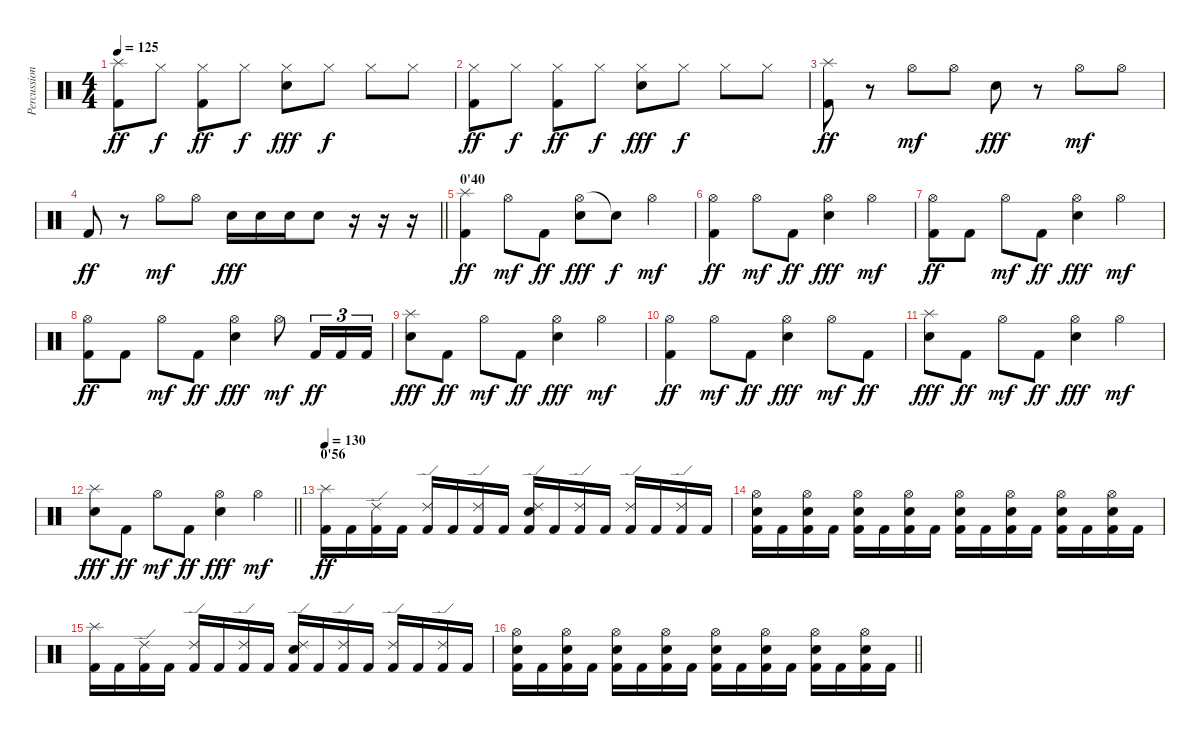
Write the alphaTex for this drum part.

\track ("Percussions" "Percussion") {instrument percussion}
\staff {score}
\articulation defaults
\ts (4 4)
\tempo 125
\clef neutral
\ks c
("Splash (hit)" "Kick (hit) 2").8{dy ff} "Hi-Hat (closed)".8{dy f} ("Hi-Hat (closed)" "Kick (hit) 2").8{dy ff} "Hi-Hat (closed)".8{dy f} ("Hi-Hat (closed)" "Snare (hit) 2").8{dy fff} "Hi-Hat (closed)".8{dy f} "Hi-Hat (closed)".8 "Hi-Hat (closed)".8 |
("Hi-Hat (closed)" "Kick (hit) 2").8{dy ff} "Hi-Hat (closed)".8{dy f} ("Hi-Hat (closed)" "Kick (hit) 2").8{dy ff} "Hi-Hat (closed)".8{dy f} ("Hi-Hat (closed)" "Snare (hit) 2").8{dy fff} "Hi-Hat (closed)".8{dy f} "Hi-Hat (closed)".8 "Hi-Hat (closed)".8 |
("Splash (hit)" "Kick (hit) 2").8{dy ff} r.8 "Hi-Hat (open)".8{dy mf} "Hi-Hat (open)".8 "Snare (hit) 2".8{dy fff} r.8 "Hi-Hat (open)".8{dy mf} "Hi-Hat (open)".8 |
\barLineRight lightlight "Kick (hit) 2".8{dy ff}
r.8 "Hi-Hat (open)".8{dy mf} "Hi-Hat (open)".8 "Snare (hit) 2".16{dy fff} "Snare (hit) 2".16 "Snare (hit) 2".16 "Snare (hit) 2".8 r.16 r.16 r.16 |
\section ("" "0'40")
("Splash (hit)" "Kick (hit) 2").4{dy ff} "Hi-Hat (open)".8{dy mf} "Kick (hit) 2".8{dy ff} ("Hi-Hat (open)" "Snare (hit) 2").8{dy fff} "Snare (hit)"{t}.8{dy f} "Hi-Hat (open)".4{dy mf} |
("Hi-Hat (open)" "Kick (hit) 2").4{dy ff} "Hi-Hat (open)".8{dy mf} "Kick (hit) 2".8{dy ff} ("Hi-Hat (open)" "Snare (hit) 2").4{dy fff} "Hi-Hat (open)".4{dy mf} |
("Hi-Hat (open)" "Kick (hit) 2").8{dy ff} "Kick (hit) 2".8 "Hi-Hat (open)".8{dy mf} "Kick (hit) 2".8{dy ff} ("Hi-Hat (open)" "Snare (hit) 2").4{dy fff} "Hi-Hat (open)".4{dy mf} |
("Hi-Hat (open)" "Kick (hit) 2").8{dy ff} "Kick (hit) 2".8 "Hi-Hat (open)".8{dy mf} "Kick (hit) 2".8{dy ff} ("Hi-Hat (open)" "Snare (hit) 2").4{dy fff} "Hi-Hat (open)".8{dy mf} "Kick (hit) 2".16{tu (3 2) dy ff} "Kick (hit) 2".16{tu (3 2)} "Kick (hit) 2".16{tu (3 2)} |
("Splash (hit)" "Snare (hit) 2").8{dy fff} "Kick (hit) 2".8{dy ff} "Hi-Hat (open)".8{dy mf} "Kick (hit) 2".8{dy ff} ("Hi-Hat (open)" "Snare (hit) 2").4{dy fff} "Hi-Hat (open)".4{dy mf} |
("Hi-Hat (open)" "Kick (hit) 2").4{dy ff} "Hi-Hat (open)".8{dy mf} "Kick (hit) 2".8{dy ff} ("Hi-Hat (open)" "Snare (hit) 2").4{dy fff} "Hi-Hat (open)".8{dy mf} "Kick (hit) 2".8{dy ff} |
("Splash (hit)" "Snare (hit) 2").8{dy fff} "Kick (hit) 2".8{dy ff} "Hi-Hat (open)".8{dy mf} "Kick (hit) 2".8{dy ff} ("Hi-Hat (open)" "Snare (hit) 2").4{dy fff} "Hi-Hat (open)".4{dy mf} |
\barLineRight lightlight
("Splash (hit)" "Snare (hit) 2").8{dy fff} "Kick (hit) 2".8{dy ff} "Hi-Hat (open)".8{dy mf} "Kick (hit) 2".8{dy ff} ("Hi-Hat (open)" "Snare (hit) 2").4{dy fff} "Hi-Hat (open)".4{dy mf} |
\section ("" "0'56")
\tempo 130
("Splash (hit)" "Kick (hit) 2").16{dy ff} "Kick (hit) 2".16 ("Ride (edge) 2" "Kick (hit) 2").16 "Kick (hit) 2".16 ("Ride (edge) 2" "Kick (hit) 2").16 "Kick (hit) 2".16 ("Ride (edge) 2" "Kick (hit) 2").16 "Kick (hit) 2".16 ("Ride (edge) 2" "Snare (hit) 2" "Kick (hit) 2").16 "Kick (hit) 2".16 ("Ride (edge) 2" "Kick (hit) 2").16 "Kick (hit) 2".16 ("Ride (edge) 2" "Kick (hit) 2").16 "Kick (hit) 2".16 ("Ride (edge) 2" "Kick (hit) 2").16 "Kick (hit) 2".16 |
("Hi-Hat (open)" "Snare (hit) 2" "Kick (hit) 2").16 "Kick (hit) 2".16 ("Hi-Hat (open)" "Snare (hit) 2" "Kick (hit) 2").16 "Kick (hit) 2".16 ("Hi-Hat (open)" "Snare (hit) 2" "Kick (hit) 2").16 "Kick (hit) 2".16 ("Hi-Hat (open)" "Snare (hit) 2" "Kick (hit) 2").16 "Kick (hit) 2".16 ("Hi-Hat (open)" "Snare (hit) 2" "Kick (hit) 2").16 "Kick (hit) 2".16 ("Hi-Hat (open)" "Snare (hit) 2" "Kick (hit) 2").16 "Kick (hit) 2".16 ("Hi-Hat (open)" "Snare (hit) 2" "Kick (hit) 2").16 "Kick (hit) 2".16 ("Hi-Hat (open)" "Snare (hit) 2" "Kick (hit) 2").16 "Kick (hit) 2".16 |
("Splash (hit)" "Kick (hit) 2").16 "Kick (hit) 2".16 ("Ride (edge) 2" "Kick (hit) 2").16 "Kick (hit) 2".16 ("Ride (edge) 2" "Kick (hit) 2").16 "Kick (hit) 2".16 ("Ride (edge) 2" "Kick (hit) 2").16 "Kick (hit) 2".16 ("Ride (edge) 2" "Snare (hit) 2" "Kick (hit) 2").16 "Kick (hit) 2".16 ("Ride (edge) 2" "Kick (hit) 2").16 "Kick (hit) 2".16 ("Ride (edge) 2" "Kick (hit) 2").16 "Kick (hit) 2".16 ("Ride (edge) 2" "Kick (hit) 2").16 "Kick (hit) 2".16 |
\barLineRight lightlight
("Hi-Hat (open)" "Snare (hit) 2" "Kick (hit) 2").16 "Kick (hit) 2".16 ("Hi-Hat (open)" "Snare (hit) 2" "Kick (hit) 2").16 "Kick (hit) 2".16 ("Hi-Hat (open)" "Snare (hit) 2" "Kick (hit) 2").16 "Kick (hit) 2".16 ("Hi-Hat (open)" "Snare (hit) 2" "Kick (hit) 2").16 "Kick (hit) 2".16 ("Hi-Hat (open)" "Snare (hit) 2" "Kick (hit) 2").16 "Kick (hit) 2".16 ("Hi-Hat (open)" "Snare (hit) 2" "Kick (hit) 2").16 "Kick (hit) 2".16 ("Hi-Hat (open)" "Snare (hit) 2" "Kick (hit) 2").16 "Kick (hit) 2".16 ("Hi-Hat (open)" "Snare (hit) 2" "Kick (hit) 2").16 "Kick (hit) 2".16
